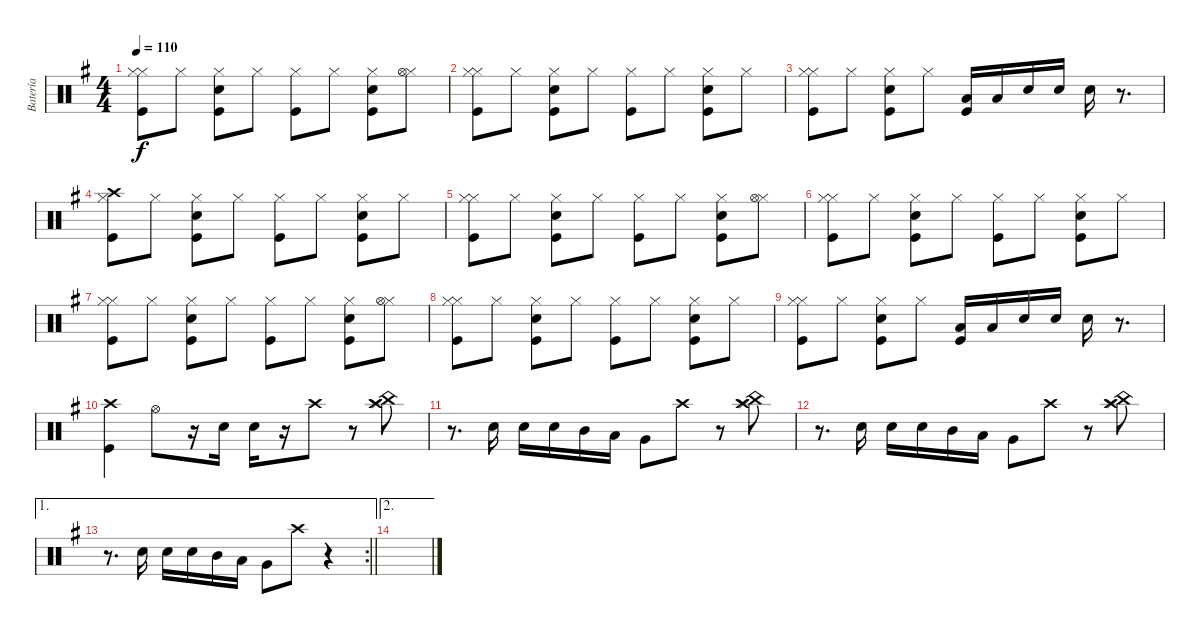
\track ("Batería" "Batería") {instrument percussion}
\staff {score}
\articulation defaults
\ts (4 4)
\tempo 110
\clef neutral
\ks eminor
("Hi-Hat (closed)" "Hi-Hat (closed)" "Kick (hit)").8{dy f} "Hi-Hat (closed)".8 ("Hi-Hat (closed)" "Snare (hit) 2" "Kick (hit)").8 "Hi-Hat (closed)".8 ("Hi-Hat (closed)" "Kick (hit)").8 "Hi-Hat (closed)".8 ("Hi-Hat (closed)" "Snare (hit) 2" "Kick (hit)").8 ("Hi-Hat (closed)" "Hi-Hat (open)").8 |
("Hi-Hat (closed)" "Hi-Hat (closed)" "Kick (hit)").8 "Hi-Hat (closed)".8 ("Hi-Hat (closed)" "Snare (hit) 2" "Kick (hit)").8 "Hi-Hat (closed)".8 ("Hi-Hat (closed)" "Kick (hit)").8 "Hi-Hat (closed)".8 ("Hi-Hat (closed)" "Snare (hit) 2" "Kick (hit)").8 "Hi-Hat (closed)".8 |
("Hi-Hat (closed)" "Hi-Hat (closed)" "Kick (hit)").8 "Hi-Hat (closed)".8 ("Hi-Hat (closed)" "Snare (hit) 2" "Kick (hit)").8 "Hi-Hat (closed)".8 ("Low Tom (hit)" "Kick (hit)").16 "Low Tom (hit)".16 "Snare (hit) 2".16 "Snare (hit) 2".16 "Snare (hit) 2".16 r.8{d} |
("Crash high (hit)" "Hi-Hat (closed)" "Kick (hit)").8 "Hi-Hat (closed)".8 ("Snare (hit) 2" "Hi-Hat (closed)" "Kick (hit)").8 "Hi-Hat (closed)".8 ("Hi-Hat (closed)" "Kick (hit)").8 "Hi-Hat (closed)".8 ("Hi-Hat (closed)" "Snare (hit) 2" "Kick (hit)").8 "Hi-Hat (closed)".8 |
("Hi-Hat (closed)" "Hi-Hat (closed)" "Kick (hit)").8 "Hi-Hat (closed)".8 ("Hi-Hat (closed)" "Snare (hit) 2" "Kick (hit)").8 "Hi-Hat (closed)".8 ("Hi-Hat (closed)" "Kick (hit)").8 "Hi-Hat (closed)".8 ("Hi-Hat (closed)" "Snare (hit) 2" "Kick (hit)").8 ("Hi-Hat (closed)" "Hi-Hat (open)").8 |
("Hi-Hat (closed)" "Hi-Hat (closed)" "Kick (hit)").8 "Hi-Hat (closed)".8 ("Hi-Hat (closed)" "Snare (hit) 2" "Kick (hit)").8 "Hi-Hat (closed)".8 ("Hi-Hat (closed)" "Kick (hit)").8 "Hi-Hat (closed)".8 ("Hi-Hat (closed)" "Snare (hit) 2" "Kick (hit)").8 "Hi-Hat (closed)".8 |
("Hi-Hat (closed)" "Hi-Hat (closed)" "Kick (hit)").8 "Hi-Hat (closed)".8 ("Hi-Hat (closed)" "Snare (hit) 2" "Kick (hit)").8 "Hi-Hat (closed)".8 ("Hi-Hat (closed)" "Kick (hit)").8 "Hi-Hat (closed)".8 ("Hi-Hat (closed)" "Snare (hit) 2" "Kick (hit)").8 ("Hi-Hat (closed)" "Hi-Hat (open)").8 |
("Hi-Hat (closed)" "Hi-Hat (closed)" "Kick (hit)").8 "Hi-Hat (closed)".8 ("Hi-Hat (closed)" "Snare (hit) 2" "Kick (hit)").8 "Hi-Hat (closed)".8 ("Hi-Hat (closed)" "Kick (hit)").8 "Hi-Hat (closed)".8 ("Hi-Hat (closed)" "Snare (hit) 2" "Kick (hit)").8 "Hi-Hat (closed)".8 |
("Hi-Hat (closed)" "Hi-Hat (closed)" "Kick (hit)").8 "Hi-Hat (closed)".8 ("Hi-Hat (closed)" "Snare (hit) 2" "Kick (hit)").8 "Hi-Hat (closed)".8 ("Low Tom (hit)" "Kick (hit)").16 "Low Tom (hit)".16 "Snare (hit) 2".16 "Snare (hit) 2".16 "Snare (hit) 2".16 r.8{d} |
("Crash high (hit)" "Kick (hit)").4 "Hi-Hat (open)".8 r.16 "Snare (hit) 2".16 "Snare (hit) 2".16 r.16 "Crash high (hit)".8 r.8 ("Splash (hit)" "China (hit)" "Crash high (hit)").8 |
r.8{d} "Snare (hit) 2".16 "Snare (hit) 2".16 "Snare (hit) 2".16 "Mid Tom (hit)".16 "Low Tom (hit)".16 "Very Low Tom (hit)".8 "Crash high (hit)".8 r.8 ("Splash (hit)" "China (hit)" "Crash high (hit)").8 |
r.8{d} "Snare (hit) 2".16 "Snare (hit) 2".16 "Snare (hit) 2".16 "Mid Tom (hit)".16 "Low Tom (hit)".16 "Very Low Tom (hit)".8 "Crash high (hit)".8 r.8 ("Splash (hit)" "China (hit)" "Crash high (hit)").8 |
\ae 1
\rc 2
\barLineRight lightlight
r.8{d} "Snare (hit) 2".16 "Snare (hit) 2".16 "Snare (hit) 2".16 "Mid Tom (hit)".16 "Low Tom (hit)".16 "Very Low Tom (hit)".8 "Crash high (hit)".8 r.4 |
\ae 2
